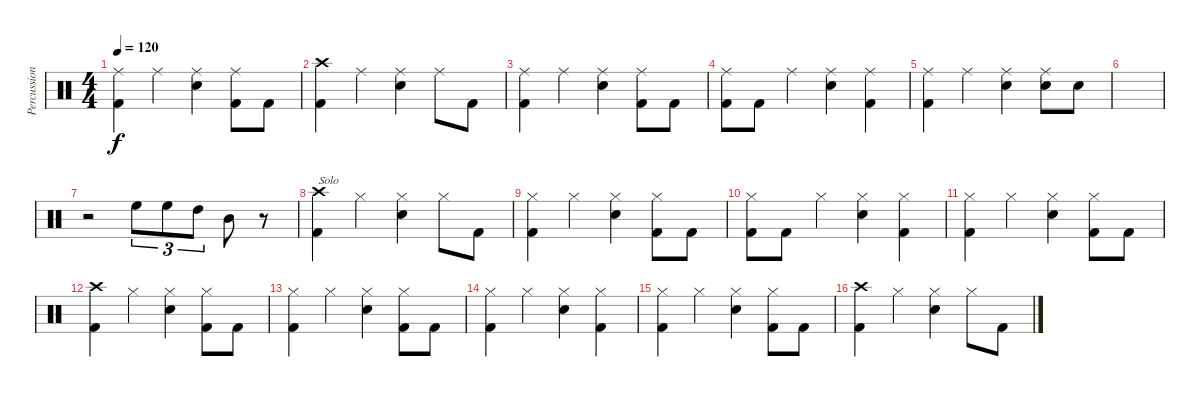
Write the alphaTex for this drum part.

\track ("Percussion" "Percussion") {instrument percussion}
\staff {score}
\articulation defaults
\ts (4 4)
\tempo 120
\clef neutral
\ks c
("Kick (hit) 2" "Ride (middle)").4{dy f} "Ride (middle)".4 ("Snare (hit) 2" "Ride (middle)").4 ("Kick (hit) 2" "Ride (middle)").8 "Kick (hit) 2".8 |
("Kick (hit) 2" "Crash high (hit)").4 "Ride (middle)".4 ("Snare (hit) 2" "Ride (middle)").4 "Ride (middle)".8 "Kick (hit) 2".8 |
("Kick (hit) 2" "Ride (middle)").4 "Ride (middle)".4 ("Snare (hit) 2" "Ride (middle)").4 ("Kick (hit) 2" "Ride (middle)").8 "Kick (hit) 2".8 |
("Kick (hit) 2" "Ride (middle)").8 "Kick (hit) 2".8 "Ride (middle)".4 ("Snare (hit) 2" "Ride (middle)").4 ("Kick (hit) 2" "Ride (middle)").4 |
("Kick (hit) 2" "Ride (middle)").4 "Ride (middle)".4 ("Snare (hit) 2" "Ride (middle)").4 ("Snare (hit) 2" "Ride (middle)").8 "Snare (hit) 2".8 |
|
r.2 "High Floor Tom (hit)".8{tu (3 2)} "High Floor Tom (hit)".8{tu (3 2)} "High Tom (hit)".8{tu (3 2)} "Mid Tom (hit)".8 r.8 |
("Kick (hit) 2" "Crash high (hit)").4{txt "Solo"} "Hi-Hat (closed)".4 ("Snare (hit) 2" "Hi-Hat (closed)").4 "Hi-Hat (closed)".8 "Kick (hit) 2".8 |
("Kick (hit) 2" "Hi-Hat (closed)").4 "Hi-Hat (closed)".4 ("Snare (hit) 2" "Hi-Hat (closed)").4 ("Kick (hit) 2" "Hi-Hat (closed)").8 "Kick (hit) 2".8 |
("Kick (hit) 2" "Hi-Hat (closed)").8 "Kick (hit) 2".8 "Hi-Hat (closed)".4 ("Snare (hit) 2" "Hi-Hat (closed)").4 ("Kick (hit) 2" "Hi-Hat (closed)").4 |
("Kick (hit) 2" "Hi-Hat (closed)").4 "Hi-Hat (closed)".4 ("Snare (hit) 2" "Hi-Hat (closed)").4 ("Kick (hit) 2" "Hi-Hat (closed)").8 "Kick (hit) 2".8 |
("Kick (hit) 2" "Crash high (hit)").4 "Hi-Hat (closed)".4 ("Snare (hit) 2" "Hi-Hat (closed)").4 ("Kick (hit) 2" "Hi-Hat (closed)").8 "Kick (hit) 2".8 |
("Kick (hit) 2" "Hi-Hat (closed)").4 "Hi-Hat (closed)".4 ("Snare (hit) 2" "Hi-Hat (closed)").4 ("Kick (hit) 2" "Hi-Hat (closed)").8 "Kick (hit) 2".8 |
("Kick (hit) 2" "Hi-Hat (closed)").4 "Hi-Hat (closed)".4 ("Snare (hit) 2" "Hi-Hat (closed)").4 ("Kick (hit) 2" "Hi-Hat (closed)").4 |
("Kick (hit) 2" "Hi-Hat (closed)").4 "Hi-Hat (closed)".4 ("Snare (hit) 2" "Hi-Hat (closed)").4 ("Kick (hit) 2" "Hi-Hat (closed)").8 "Kick (hit) 2".8 |
("Kick (hit) 2" "Crash high (hit)").4 "Hi-Hat (closed)".4 ("Snare (hit) 2" "Hi-Hat (closed)").4 "Hi-Hat (closed)".8 "Kick (hit) 2".8
